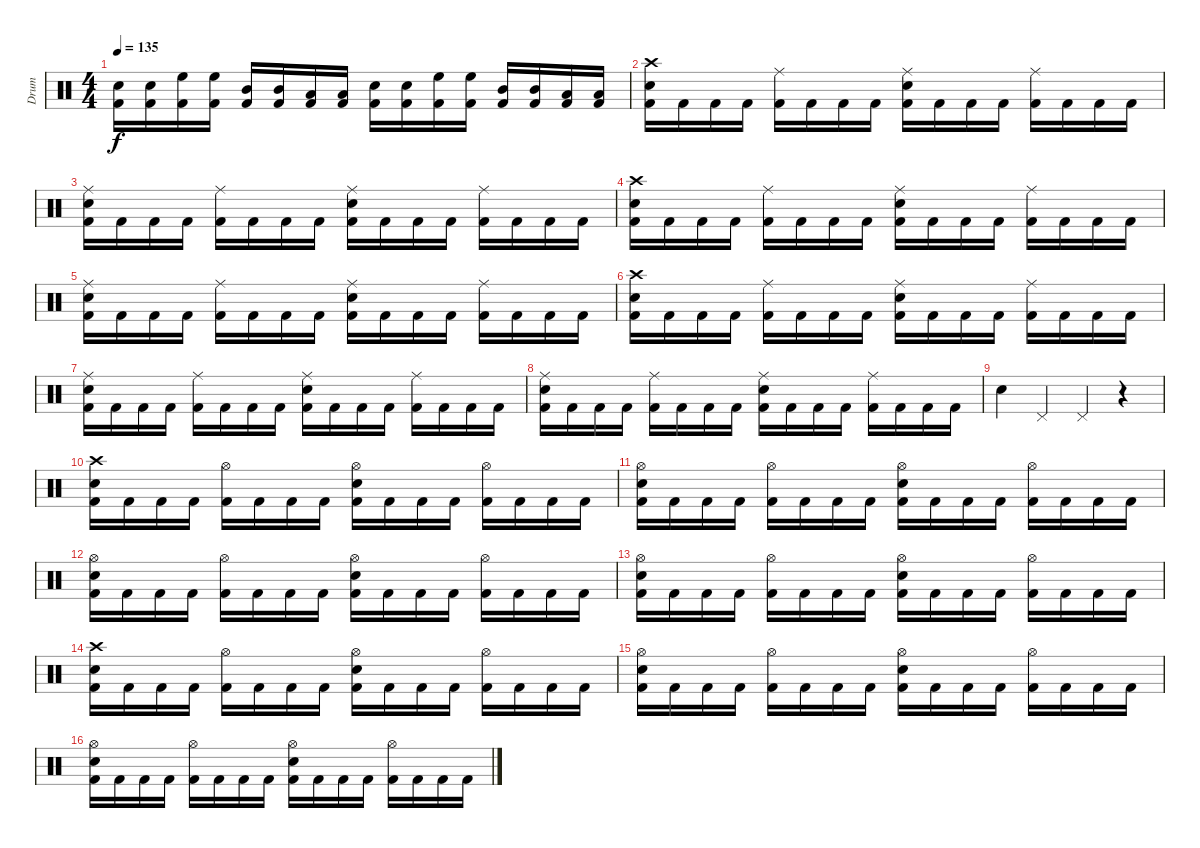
\track ("Drum" "Drum") {instrument percussion}
\staff {score}
\articulation defaults
\ts (4 4)
\tempo 135
\clef neutral
\ks c
("Snare (hit) 2" "Kick (hit) 2").16{dy f} ("Snare (hit) 2" "Kick (hit) 2").16 ("High Floor Tom (hit)" "Kick (hit) 2").16 ("High Floor Tom (hit)" "Kick (hit) 2").16 ("Mid Tom (hit)" "Kick (hit) 2").16 ("Mid Tom (hit)" "Kick (hit) 2").16 ("Low Tom (hit)" "Kick (hit) 2").16 ("Low Tom (hit)" "Kick (hit) 2").16 ("Snare (hit) 2" "Kick (hit) 2").16 ("Snare (hit) 2" "Kick (hit) 2").16 ("High Floor Tom (hit)" "Kick (hit) 2").16 ("High Floor Tom (hit)" "Kick (hit) 2").16 ("Mid Tom (hit)" "Kick (hit) 2").16 ("Mid Tom (hit)" "Kick (hit) 2").16 ("Low Tom (hit)" "Kick (hit) 2").16 ("Low Tom (hit)" "Kick (hit) 2").16 |
("Crash high (hit)" "Snare (hit) 2" "Kick (hit) 2").16 "Kick (hit) 2".16 "Kick (hit) 2".16 "Kick (hit) 2".16 ("Ride (middle)" "Kick (hit) 2").16 "Kick (hit) 2".16 "Kick (hit) 2".16 "Kick (hit) 2".16 ("Ride (middle)" "Snare (hit) 2" "Kick (hit) 2").16 "Kick (hit) 2".16 "Kick (hit) 2".16 "Kick (hit) 2".16 ("Ride (middle)" "Kick (hit) 2").16 "Kick (hit) 2".16 "Kick (hit) 2".16 "Kick (hit) 2".16 |
("Ride (middle)" "Snare (hit) 2" "Kick (hit) 2").16 "Kick (hit) 2".16 "Kick (hit) 2".16 "Kick (hit) 2".16 ("Ride (middle)" "Kick (hit) 2").16 "Kick (hit) 2".16 "Kick (hit) 2".16 "Kick (hit) 2".16 ("Ride (middle)" "Snare (hit) 2" "Kick (hit) 2").16 "Kick (hit) 2".16 "Kick (hit) 2".16 "Kick (hit) 2".16 ("Ride (middle)" "Kick (hit) 2").16 "Kick (hit) 2".16 "Kick (hit) 2".16 "Kick (hit) 2".16 |
("Crash high (hit)" "Snare (hit) 2" "Kick (hit) 2").16 "Kick (hit) 2".16 "Kick (hit) 2".16 "Kick (hit) 2".16 ("Ride (middle)" "Kick (hit) 2").16 "Kick (hit) 2".16 "Kick (hit) 2".16 "Kick (hit) 2".16 ("Ride (middle)" "Snare (hit) 2" "Kick (hit) 2").16 "Kick (hit) 2".16 "Kick (hit) 2".16 "Kick (hit) 2".16 ("Ride (middle)" "Kick (hit) 2").16 "Kick (hit) 2".16 "Kick (hit) 2".16 "Kick (hit) 2".16 |
("Ride (middle)" "Snare (hit) 2" "Kick (hit) 2").16 "Kick (hit) 2".16 "Kick (hit) 2".16 "Kick (hit) 2".16 ("Ride (middle)" "Kick (hit) 2").16 "Kick (hit) 2".16 "Kick (hit) 2".16 "Kick (hit) 2".16 ("Ride (middle)" "Snare (hit) 2" "Kick (hit) 2").16 "Kick (hit) 2".16 "Kick (hit) 2".16 "Kick (hit) 2".16 ("Ride (middle)" "Kick (hit) 2").16 "Kick (hit) 2".16 "Kick (hit) 2".16 "Kick (hit) 2".16 |
("Crash high (hit)" "Snare (hit) 2" "Kick (hit) 2").16 "Kick (hit) 2".16 "Kick (hit) 2".16 "Kick (hit) 2".16 ("Ride (middle)" "Kick (hit) 2").16 "Kick (hit) 2".16 "Kick (hit) 2".16 "Kick (hit) 2".16 ("Ride (middle)" "Snare (hit) 2" "Kick (hit) 2").16 "Kick (hit) 2".16 "Kick (hit) 2".16 "Kick (hit) 2".16 ("Ride (middle)" "Kick (hit) 2").16 "Kick (hit) 2".16 "Kick (hit) 2".16 "Kick (hit) 2".16 |
("Ride (middle)" "Snare (hit) 2" "Kick (hit) 2").16 "Kick (hit) 2".16 "Kick (hit) 2".16 "Kick (hit) 2".16 ("Ride (middle)" "Kick (hit) 2").16 "Kick (hit) 2".16 "Kick (hit) 2".16 "Kick (hit) 2".16 ("Ride (middle)" "Snare (hit) 2" "Kick (hit) 2").16 "Kick (hit) 2".16 "Kick (hit) 2".16 "Kick (hit) 2".16 ("Ride (middle)" "Kick (hit) 2").16 "Kick (hit) 2".16 "Kick (hit) 2".16 "Kick (hit) 2".16 |
("Ride (middle)" "Snare (hit) 2" "Kick (hit) 2").16 "Kick (hit) 2".16 "Kick (hit) 2".16 "Kick (hit) 2".16 ("Ride (middle)" "Kick (hit) 2").16 "Kick (hit) 2".16 "Kick (hit) 2".16 "Kick (hit) 2".16 ("Ride (middle)" "Snare (hit) 2" "Kick (hit) 2").16 "Kick (hit) 2".16 "Kick (hit) 2".16 "Kick (hit) 2".16 ("Ride (middle)" "Kick (hit) 2").16 "Kick (hit) 2".16 "Kick (hit) 2".16 "Kick (hit) 2".16 |
"Snare (hit) 2".4 "Pedal Hi-Hat (hit)".4 "Pedal Hi-Hat (hit)".4 r.4 |
("Crash high (hit)" "Snare (hit) 2" "Kick (hit) 2").16 "Kick (hit) 2".16 "Kick (hit) 2".16 "Kick (hit) 2".16 ("Hi-Hat (open)" "Kick (hit) 2").16 "Kick (hit) 2".16 "Kick (hit) 2".16 "Kick (hit) 2".16 ("Hi-Hat (open)" "Snare (hit) 2" "Kick (hit) 2").16 "Kick (hit) 2".16 "Kick (hit) 2".16 "Kick (hit) 2".16 ("Hi-Hat (open)" "Kick (hit) 2").16 "Kick (hit) 2".16 "Kick (hit) 2".16 "Kick (hit) 2".16 |
("Hi-Hat (open)" "Snare (hit) 2" "Kick (hit) 2").16 "Kick (hit) 2".16 "Kick (hit) 2".16 "Kick (hit) 2".16 ("Hi-Hat (open)" "Kick (hit) 2").16 "Kick (hit) 2".16 "Kick (hit) 2".16 "Kick (hit) 2".16 ("Hi-Hat (open)" "Snare (hit) 2" "Kick (hit) 2").16 "Kick (hit) 2".16 "Kick (hit) 2".16 "Kick (hit) 2".16 ("Hi-Hat (open)" "Kick (hit) 2").16 "Kick (hit) 2".16 "Kick (hit) 2".16 "Kick (hit) 2".16 |
("Hi-Hat (open)" "Snare (hit) 2" "Kick (hit) 2").16 "Kick (hit) 2".16 "Kick (hit) 2".16 "Kick (hit) 2".16 ("Hi-Hat (open)" "Kick (hit) 2").16 "Kick (hit) 2".16 "Kick (hit) 2".16 "Kick (hit) 2".16 ("Hi-Hat (open)" "Snare (hit) 2" "Kick (hit) 2").16 "Kick (hit) 2".16 "Kick (hit) 2".16 "Kick (hit) 2".16 ("Hi-Hat (open)" "Kick (hit) 2").16 "Kick (hit) 2".16 "Kick (hit) 2".16 "Kick (hit) 2".16 |
("Hi-Hat (open)" "Snare (hit) 2" "Kick (hit) 2").16 "Kick (hit) 2".16 "Kick (hit) 2".16 "Kick (hit) 2".16 ("Hi-Hat (open)" "Kick (hit) 2").16 "Kick (hit) 2".16 "Kick (hit) 2".16 "Kick (hit) 2".16 ("Hi-Hat (open)" "Snare (hit) 2" "Kick (hit) 2").16 "Kick (hit) 2".16 "Kick (hit) 2".16 "Kick (hit) 2".16 ("Hi-Hat (open)" "Kick (hit) 2").16 "Kick (hit) 2".16 "Kick (hit) 2".16 "Kick (hit) 2".16 |
("Crash high (hit)" "Snare (hit) 2" "Kick (hit) 2").16 "Kick (hit) 2".16 "Kick (hit) 2".16 "Kick (hit) 2".16 ("Hi-Hat (open)" "Kick (hit) 2").16 "Kick (hit) 2".16 "Kick (hit) 2".16 "Kick (hit) 2".16 ("Hi-Hat (open)" "Snare (hit) 2" "Kick (hit) 2").16 "Kick (hit) 2".16 "Kick (hit) 2".16 "Kick (hit) 2".16 ("Hi-Hat (open)" "Kick (hit) 2").16 "Kick (hit) 2".16 "Kick (hit) 2".16 "Kick (hit) 2".16 |
("Hi-Hat (open)" "Snare (hit) 2" "Kick (hit) 2").16 "Kick (hit) 2".16 "Kick (hit) 2".16 "Kick (hit) 2".16 ("Hi-Hat (open)" "Kick (hit) 2").16 "Kick (hit) 2".16 "Kick (hit) 2".16 "Kick (hit) 2".16 ("Hi-Hat (open)" "Snare (hit) 2" "Kick (hit) 2").16 "Kick (hit) 2".16 "Kick (hit) 2".16 "Kick (hit) 2".16 ("Hi-Hat (open)" "Kick (hit) 2").16 "Kick (hit) 2".16 "Kick (hit) 2".16 "Kick (hit) 2".16 |
("Hi-Hat (open)" "Snare (hit) 2" "Kick (hit) 2").16 "Kick (hit) 2".16 "Kick (hit) 2".16 "Kick (hit) 2".16 ("Hi-Hat (open)" "Kick (hit) 2").16 "Kick (hit) 2".16 "Kick (hit) 2".16 "Kick (hit) 2".16 ("Hi-Hat (open)" "Snare (hit) 2" "Kick (hit) 2").16 "Kick (hit) 2".16 "Kick (hit) 2".16 "Kick (hit) 2".16 ("Hi-Hat (open)" "Kick (hit) 2").16 "Kick (hit) 2".16 "Kick (hit) 2".16 "Kick (hit) 2".16
